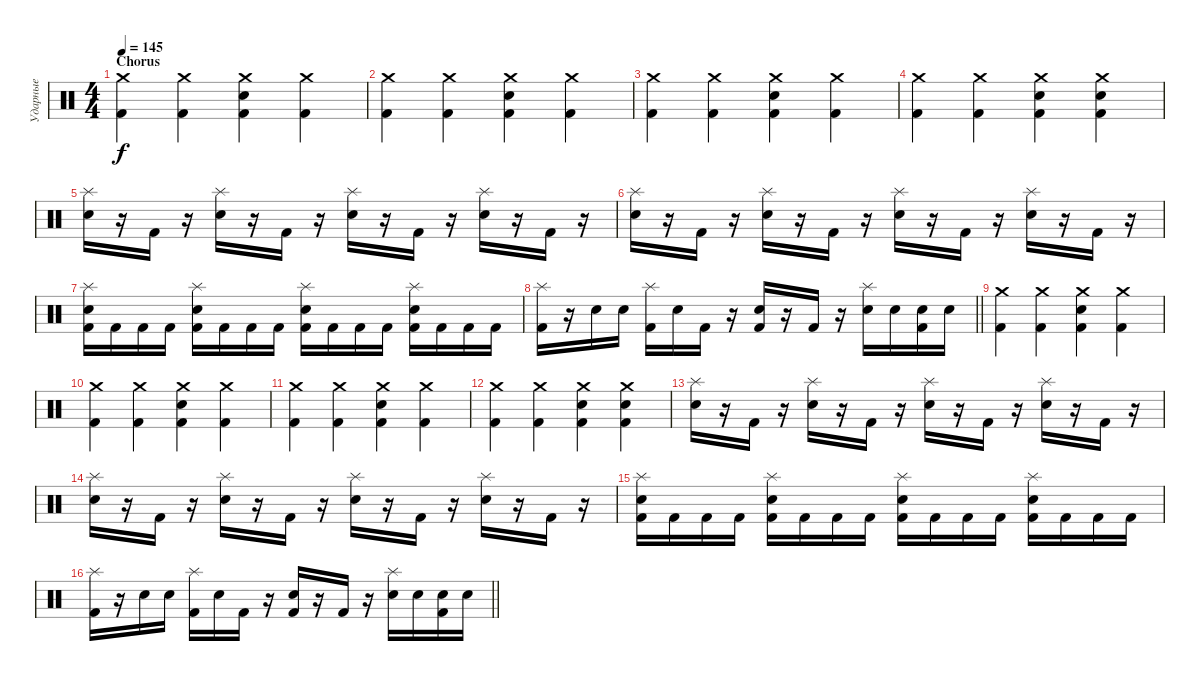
\track ("Ударные" "Ударные") {instrument percussion}
\staff {score}
\articulation defaults
\ts (4 4)
\section ("" "Chorus")
\tempo 145
\clef neutral
\ks c
("Crash medium (hit)" "Kick (hit) 2").4{dy f} ("Crash medium (hit)" "Kick (hit) 2").4 ("Crash medium (hit)" "Electric Snare (hit)" "Kick (hit) 2").4 ("Crash medium (hit)" "Kick (hit) 2").4 |
("Crash medium (hit)" "Kick (hit) 2").4 ("Crash medium (hit)" "Kick (hit) 2").4 ("Crash medium (hit)" "Electric Snare (hit)" "Kick (hit) 2").4 ("Crash medium (hit)" "Kick (hit) 2").4 |
("Crash medium (hit)" "Kick (hit) 2").4 ("Crash medium (hit)" "Kick (hit) 2").4 ("Crash medium (hit)" "Electric Snare (hit)" "Kick (hit) 2").4 ("Crash medium (hit)" "Kick (hit) 2").4 |
("Crash medium (hit)" "Kick (hit) 2").4 ("Crash medium (hit)" "Kick (hit) 2").4 ("Crash medium (hit)" "Electric Snare (hit)" "Kick (hit) 2").4 ("Crash medium (hit)" "Electric Snare (hit)" "Kick (hit) 2").4 |
("Splash (hit)" "Electric Snare (hit)").16 r.16 "Kick (hit) 2".16 r.16 ("Splash (hit)" "Electric Snare (hit)").16 r.16 "Kick (hit) 2".16 r.16 ("Splash (hit)" "Electric Snare (hit)").16 r.16 "Kick (hit) 2".16 r.16 ("Splash (hit)" "Electric Snare (hit)").16 r.16 "Kick (hit) 2".16 r.16 |
("Splash (hit)" "Electric Snare (hit)").16 r.16 "Kick (hit) 2".16 r.16 ("Splash (hit)" "Electric Snare (hit)").16 r.16 "Kick (hit) 2".16 r.16 ("Splash (hit)" "Electric Snare (hit)").16 r.16 "Kick (hit) 2".16 r.16 ("Splash (hit)" "Electric Snare (hit)").16 r.16 "Kick (hit) 2".16 r.16 |
("Splash (hit)" "Electric Snare (hit)" "Kick (hit) 2").16 "Kick (hit) 2".16 "Kick (hit) 2".16 "Kick (hit) 2".16 ("Splash (hit)" "Electric Snare (hit)" "Kick (hit) 2").16 "Kick (hit) 2".16 "Kick (hit) 2".16 "Kick (hit) 2".16 ("Splash (hit)" "Electric Snare (hit)" "Kick (hit) 2").16 "Kick (hit) 2".16 "Kick (hit) 2".16 "Kick (hit) 2".16 ("Splash (hit)" "Electric Snare (hit)" "Kick (hit) 2").16 "Kick (hit) 2".16 "Kick (hit) 2".16 "Kick (hit) 2".16 |
\barLineRight lightlight
("Splash (hit)" "Kick (hit) 2").16 r.16 "Electric Snare (hit)".16 "Electric Snare (hit)".16 ("Splash (hit)" "Kick (hit) 2").16 "Electric Snare (hit)".16 "Kick (hit) 2".16 r.16 ("Electric Snare (hit)" "Kick (hit) 2").16 r.16 "Kick (hit) 2".16 r.16 ("Splash (hit)" "Electric Snare (hit)").16 "Electric Snare (hit)".16 ("Electric Snare (hit)" "Kick (hit) 2").16 "Electric Snare (hit)".16 |
("Crash medium (hit)" "Kick (hit) 2").4 ("Crash medium (hit)" "Kick (hit) 2").4 ("Crash medium (hit)" "Electric Snare (hit)" "Kick (hit) 2").4 ("Crash medium (hit)" "Kick (hit) 2").4 |
("Crash medium (hit)" "Kick (hit) 2").4 ("Crash medium (hit)" "Kick (hit) 2").4 ("Crash medium (hit)" "Electric Snare (hit)" "Kick (hit) 2").4 ("Crash medium (hit)" "Kick (hit) 2").4 |
("Crash medium (hit)" "Kick (hit) 2").4 ("Crash medium (hit)" "Kick (hit) 2").4 ("Crash medium (hit)" "Electric Snare (hit)" "Kick (hit) 2").4 ("Crash medium (hit)" "Kick (hit) 2").4 |
("Crash medium (hit)" "Kick (hit) 2").4 ("Crash medium (hit)" "Kick (hit) 2").4 ("Crash medium (hit)" "Electric Snare (hit)" "Kick (hit) 2").4 ("Crash medium (hit)" "Electric Snare (hit)" "Kick (hit) 2").4 |
("Splash (hit)" "Electric Snare (hit)").16 r.16 "Kick (hit) 2".16 r.16 ("Splash (hit)" "Electric Snare (hit)").16 r.16 "Kick (hit) 2".16 r.16 ("Splash (hit)" "Electric Snare (hit)").16 r.16 "Kick (hit) 2".16 r.16 ("Splash (hit)" "Electric Snare (hit)").16 r.16 "Kick (hit) 2".16 r.16 |
("Splash (hit)" "Electric Snare (hit)").16 r.16 "Kick (hit) 2".16 r.16 ("Splash (hit)" "Electric Snare (hit)").16 r.16 "Kick (hit) 2".16 r.16 ("Splash (hit)" "Electric Snare (hit)").16 r.16 "Kick (hit) 2".16 r.16 ("Splash (hit)" "Electric Snare (hit)").16 r.16 "Kick (hit) 2".16 r.16 |
("Splash (hit)" "Electric Snare (hit)" "Kick (hit) 2").16 "Kick (hit) 2".16 "Kick (hit) 2".16 "Kick (hit) 2".16 ("Splash (hit)" "Electric Snare (hit)" "Kick (hit) 2").16 "Kick (hit) 2".16 "Kick (hit) 2".16 "Kick (hit) 2".16 ("Splash (hit)" "Electric Snare (hit)" "Kick (hit) 2").16 "Kick (hit) 2".16 "Kick (hit) 2".16 "Kick (hit) 2".16 ("Splash (hit)" "Electric Snare (hit)" "Kick (hit) 2").16 "Kick (hit) 2".16 "Kick (hit) 2".16 "Kick (hit) 2".16 |
\barLineRight lightlight
("Splash (hit)" "Kick (hit) 2").16 r.16 "Electric Snare (hit)".16 "Electric Snare (hit)".16 ("Splash (hit)" "Kick (hit) 2").16 "Electric Snare (hit)".16 "Kick (hit) 2".16 r.16 ("Electric Snare (hit)" "Kick (hit) 2").16 r.16 "Kick (hit) 2".16 r.16 ("Splash (hit)" "Electric Snare (hit)").16 "Electric Snare (hit)".16 ("Electric Snare (hit)" "Kick (hit) 2").16 "Electric Snare (hit)".16
